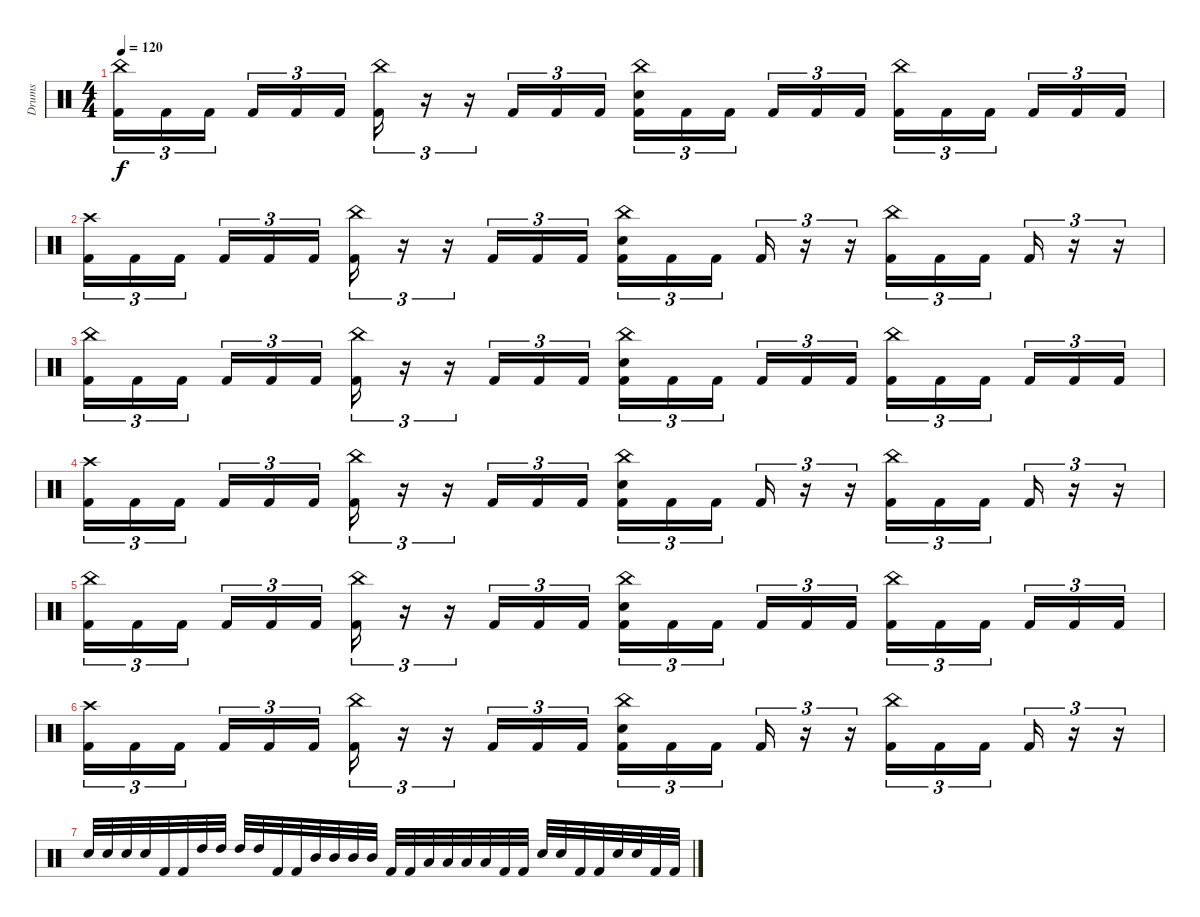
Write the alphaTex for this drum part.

\track ("Drums" "Drums") {instrument percussion}
\staff {score}
\articulation defaults
\ts (4 4)
\tempo 120
\clef neutral
\ks c
("China (hit)" "Kick (hit) 2").16{tu (3 2) dy f} "Kick (hit) 2".16{tu (3 2)} "Kick (hit) 2".16{tu (3 2) beam splitsecondary} "Kick (hit) 2".16{tu (3 2)} "Kick (hit) 2".16{tu (3 2)} "Kick (hit) 2".16{tu (3 2)} ("China (hit)" "Kick (hit) 2").16{tu (3 2)} r.16{tu (3 2)} r.16{tu (3 2)} "Kick (hit) 2".16{tu (3 2)} "Kick (hit) 2".16{tu (3 2)} "Kick (hit) 2".16{tu (3 2)} ("China (hit)" "Snare (hit) 2" "Kick (hit) 2").16{tu (3 2)} "Kick (hit) 2".16{tu (3 2)} "Kick (hit) 2".16{tu (3 2) beam splitsecondary} "Kick (hit) 2".16{tu (3 2)} "Kick (hit) 2".16{tu (3 2)} "Kick (hit) 2".16{tu (3 2)} ("China (hit)" "Kick (hit) 2").16{tu (3 2)} "Kick (hit) 2".16{tu (3 2)} "Kick (hit) 2".16{tu (3 2) beam splitsecondary} "Kick (hit) 2".16{tu (3 2)} "Kick (hit) 2".16{tu (3 2)} "Kick (hit) 2".16{tu (3 2)} |
("Crash high (hit)" "Kick (hit) 2").16{tu (3 2)} "Kick (hit) 2".16{tu (3 2)} "Kick (hit) 2".16{tu (3 2) beam splitsecondary} "Kick (hit) 2".16{tu (3 2)} "Kick (hit) 2".16{tu (3 2)} "Kick (hit) 2".16{tu (3 2)} ("China (hit)" "Kick (hit) 2").16{tu (3 2)} r.16{tu (3 2)} r.16{tu (3 2)} "Kick (hit) 2".16{tu (3 2)} "Kick (hit) 2".16{tu (3 2)} "Kick (hit) 2".16{tu (3 2)} ("China (hit)" "Snare (hit) 2" "Kick (hit) 2").16{tu (3 2)} "Kick (hit) 2".16{tu (3 2)} "Kick (hit) 2".16{tu (3 2) beam splitsecondary} "Kick (hit) 2".16{tu (3 2)} r.16{tu (3 2)} r.16{tu (3 2)} ("China (hit)" "Kick (hit) 2").16{tu (3 2)} "Kick (hit) 2".16{tu (3 2)} "Kick (hit) 2".16{tu (3 2) beam splitsecondary} "Kick (hit) 2".16{tu (3 2)} r.16{tu (3 2)} r.16{tu (3 2)} |
("China (hit)" "Kick (hit) 2").16{tu (3 2)} "Kick (hit) 2".16{tu (3 2)} "Kick (hit) 2".16{tu (3 2) beam splitsecondary} "Kick (hit) 2".16{tu (3 2)} "Kick (hit) 2".16{tu (3 2)} "Kick (hit) 2".16{tu (3 2)} ("China (hit)" "Kick (hit) 2").16{tu (3 2)} r.16{tu (3 2)} r.16{tu (3 2)} "Kick (hit) 2".16{tu (3 2)} "Kick (hit) 2".16{tu (3 2)} "Kick (hit) 2".16{tu (3 2)} ("China (hit)" "Snare (hit) 2" "Kick (hit) 2").16{tu (3 2)} "Kick (hit) 2".16{tu (3 2)} "Kick (hit) 2".16{tu (3 2) beam splitsecondary} "Kick (hit) 2".16{tu (3 2)} "Kick (hit) 2".16{tu (3 2)} "Kick (hit) 2".16{tu (3 2)} ("China (hit)" "Kick (hit) 2").16{tu (3 2)} "Kick (hit) 2".16{tu (3 2)} "Kick (hit) 2".16{tu (3 2) beam splitsecondary} "Kick (hit) 2".16{tu (3 2)} "Kick (hit) 2".16{tu (3 2)} "Kick (hit) 2".16{tu (3 2)} |
("Crash high (hit)" "Kick (hit) 2").16{tu (3 2)} "Kick (hit) 2".16{tu (3 2)} "Kick (hit) 2".16{tu (3 2) beam splitsecondary} "Kick (hit) 2".16{tu (3 2)} "Kick (hit) 2".16{tu (3 2)} "Kick (hit) 2".16{tu (3 2)} ("China (hit)" "Kick (hit) 2").16{tu (3 2)} r.16{tu (3 2)} r.16{tu (3 2)} "Kick (hit) 2".16{tu (3 2)} "Kick (hit) 2".16{tu (3 2)} "Kick (hit) 2".16{tu (3 2)} ("China (hit)" "Snare (hit) 2" "Kick (hit) 2").16{tu (3 2)} "Kick (hit) 2".16{tu (3 2)} "Kick (hit) 2".16{tu (3 2) beam splitsecondary} "Kick (hit) 2".16{tu (3 2)} r.16{tu (3 2)} r.16{tu (3 2)} ("China (hit)" "Kick (hit) 2").16{tu (3 2)} "Kick (hit) 2".16{tu (3 2)} "Kick (hit) 2".16{tu (3 2) beam splitsecondary} "Kick (hit) 2".16{tu (3 2)} r.16{tu (3 2)} r.16{tu (3 2)} |
("China (hit)" "Kick (hit) 2").16{tu (3 2)} "Kick (hit) 2".16{tu (3 2)} "Kick (hit) 2".16{tu (3 2) beam splitsecondary} "Kick (hit) 2".16{tu (3 2)} "Kick (hit) 2".16{tu (3 2)} "Kick (hit) 2".16{tu (3 2)} ("China (hit)" "Kick (hit) 2").16{tu (3 2)} r.16{tu (3 2)} r.16{tu (3 2)} "Kick (hit) 2".16{tu (3 2)} "Kick (hit) 2".16{tu (3 2)} "Kick (hit) 2".16{tu (3 2)} ("China (hit)" "Snare (hit) 2" "Kick (hit) 2").16{tu (3 2)} "Kick (hit) 2".16{tu (3 2)} "Kick (hit) 2".16{tu (3 2) beam splitsecondary} "Kick (hit) 2".16{tu (3 2)} "Kick (hit) 2".16{tu (3 2)} "Kick (hit) 2".16{tu (3 2)} ("China (hit)" "Kick (hit) 2").16{tu (3 2)} "Kick (hit) 2".16{tu (3 2)} "Kick (hit) 2".16{tu (3 2) beam splitsecondary} "Kick (hit) 2".16{tu (3 2)} "Kick (hit) 2".16{tu (3 2)} "Kick (hit) 2".16{tu (3 2)} |
("Crash high (hit)" "Kick (hit) 2").16{tu (3 2)} "Kick (hit) 2".16{tu (3 2)} "Kick (hit) 2".16{tu (3 2) beam splitsecondary} "Kick (hit) 2".16{tu (3 2)} "Kick (hit) 2".16{tu (3 2)} "Kick (hit) 2".16{tu (3 2)} ("China (hit)" "Kick (hit) 2").16{tu (3 2)} r.16{tu (3 2)} r.16{tu (3 2)} "Kick (hit) 2".16{tu (3 2)} "Kick (hit) 2".16{tu (3 2)} "Kick (hit) 2".16{tu (3 2)} ("China (hit)" "Snare (hit) 2" "Kick (hit) 2").16{tu (3 2)} "Kick (hit) 2".16{tu (3 2)} "Kick (hit) 2".16{tu (3 2) beam splitsecondary} "Kick (hit) 2".16{tu (3 2)} r.16{tu (3 2)} r.16{tu (3 2)} ("China (hit)" "Kick (hit) 2").16{tu (3 2)} "Kick (hit) 2".16{tu (3 2)} "Kick (hit) 2".16{tu (3 2) beam splitsecondary} "Kick (hit) 2".16{tu (3 2)} r.16{tu (3 2)} r.16{tu (3 2)} |
"Snare (hit) 2".32 "Snare (hit) 2".32 "Snare (hit) 2".32 "Snare (hit) 2".32 "Kick (hit) 2".32 "Kick (hit) 2".32 "High Tom (hit)".32 "High Tom (hit)".32 "High Tom (hit)".32 "High Tom (hit)".32 "Kick (hit) 2".32 "Kick (hit) 2".32 "Mid Tom (hit)".32 "Mid Tom (hit)".32 "Mid Tom (hit)".32 "Mid Tom (hit)".32 "Kick (hit) 2".32 "Kick (hit) 2".32 "Low Tom (hit)".32 "Low Tom (hit)".32 "Low Tom (hit)".32 "Low Tom (hit)".32 "Kick (hit) 2".32 "Kick (hit) 2".32 "Snare (hit) 2".32 "Snare (hit) 2".32 "Kick (hit) 2".32 "Kick (hit) 2".32 "Snare (hit) 2".32 "Snare (hit) 2".32 "Kick (hit) 2".32 "Kick (hit) 2".32
